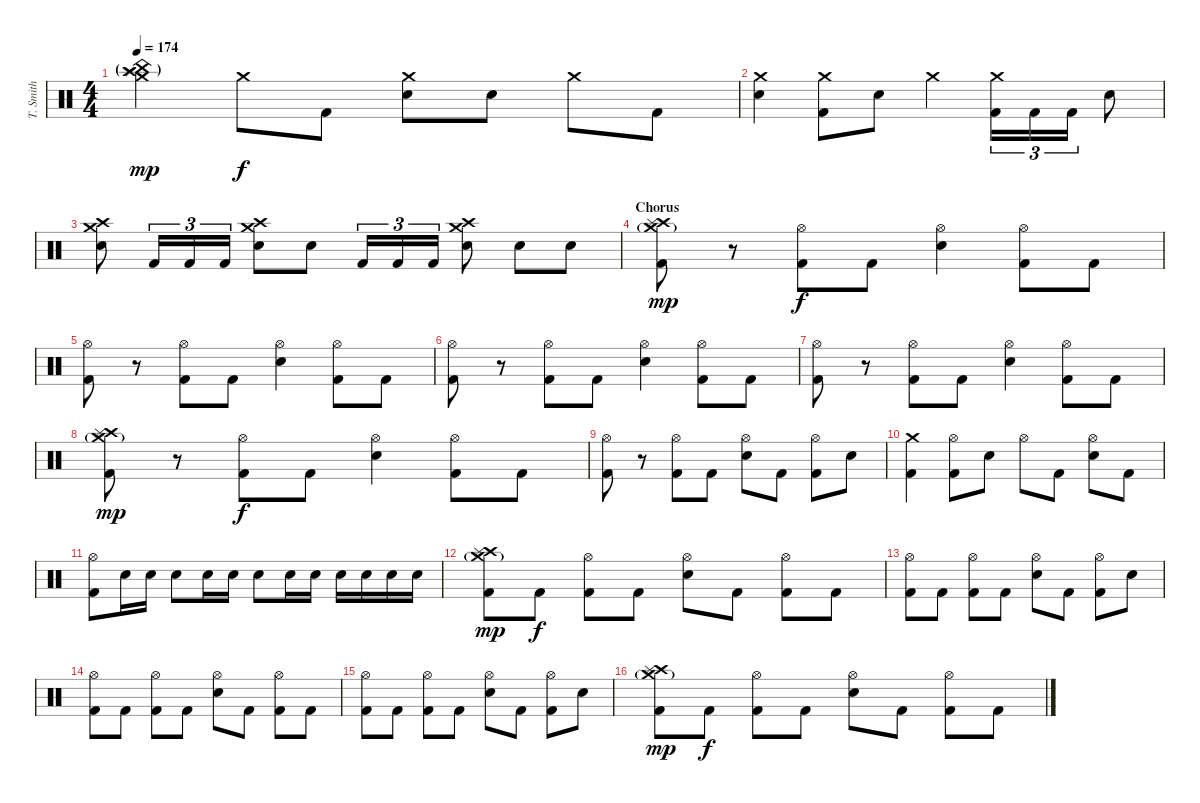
\track ("T. Smith" "T. Smith") {instrument percussion}
\staff {score}
\articulation defaults
\ts (4 4)
\tempo 174
\clef neutral
\ks c
("Crash medium (hit)" "Crash high (hit)"{g} "Splash (hit)" "China (hit)"{g}).4{dy mp} "Crash medium (hit)".8{dy f} "Kick (hit) 2".8 ("Crash medium (hit)" "Electric Snare (hit)").8 "Electric Snare (hit)".8 "Crash medium (hit)".8 "Kick (hit) 2".8 |
("Crash medium (hit)" "Electric Snare (hit)").4 ("Crash medium (hit)" "Kick (hit) 2").8 "Electric Snare (hit)".8 "Crash medium (hit)".4 ("Crash medium (hit)" "Kick (hit) 2").16{tu (3 2)} "Kick (hit) 2".16{tu (3 2)} "Kick (hit) 2".16{tu (3 2)} "Electric Snare (hit)".8 |
("Crash medium (hit)" "Crash high (hit)" "Electric Snare (hit)").8 "Kick (hit) 2".16{tu (3 2)} "Kick (hit) 2".16{tu (3 2)} "Kick (hit) 2".16{tu (3 2)} ("Crash medium (hit)" "Crash high (hit)" "Electric Snare (hit)").8 "Electric Snare (hit)".8 "Kick (hit) 2".16{tu (3 2)} "Kick (hit) 2".16{tu (3 2)} "Kick (hit) 2".16{tu (3 2)} ("Crash medium (hit)" "Crash high (hit)" "Electric Snare (hit)").8 "Electric Snare (hit)".8 "Electric Snare (hit)".8 |
\section ("" "Chorus")
("Crash medium (hit)"{g} "Crash high (hit)" "Splash (hit)" "Kick (hit) 2").8{dy mp} r.8 ("Hi-Hat (open)" "Kick (hit) 2").8{dy f} "Kick (hit) 2".8 ("Hi-Hat (open)" "Electric Snare (hit)").4 ("Hi-Hat (open)" "Kick (hit) 2").8 "Kick (hit) 2".8 |
("Hi-Hat (open)" "Kick (hit) 2").8 r.8 ("Hi-Hat (open)" "Kick (hit) 2").8 "Kick (hit) 2".8 ("Hi-Hat (open)" "Electric Snare (hit)").4 ("Hi-Hat (open)" "Kick (hit) 2").8 "Kick (hit) 2".8 |
("Hi-Hat (open)" "Kick (hit) 2").8 r.8 ("Hi-Hat (open)" "Kick (hit) 2").8 "Kick (hit) 2".8 ("Hi-Hat (open)" "Electric Snare (hit)").4 ("Hi-Hat (open)" "Kick (hit) 2").8 "Kick (hit) 2".8 |
("Hi-Hat (open)" "Kick (hit) 2").8 r.8 ("Hi-Hat (open)" "Kick (hit) 2").8 "Kick (hit) 2".8 ("Hi-Hat (open)" "Electric Snare (hit)").4 ("Hi-Hat (open)" "Kick (hit) 2").8 "Kick (hit) 2".8 |
("Crash medium (hit)"{g} "Crash high (hit)" "Splash (hit)" "Kick (hit) 2").8{dy mp} r.8 ("Hi-Hat (open)" "Kick (hit) 2").8{dy f} "Kick (hit) 2".8 ("Hi-Hat (open)" "Electric Snare (hit)").4 ("Hi-Hat (open)" "Kick (hit) 2").8 "Kick (hit) 2".8 |
("Hi-Hat (open)" "Kick (hit) 2").8 r.8 ("Hi-Hat (open)" "Kick (hit) 2").8 "Kick (hit) 2".8 ("Hi-Hat (open)" "Electric Snare (hit)").8 "Kick (hit) 2".8 ("Hi-Hat (open)" "Kick (hit) 2").8 "Electric Snare (hit)".8 |
("Crash medium (hit)" "Kick (hit) 2").4 ("Hi-Hat (open)" "Kick (hit) 2").8 "Electric Snare (hit)".8 "Hi-Hat (open)".8 "Kick (hit) 2".8 ("Hi-Hat (open)" "Electric Snare (hit)").8 "Kick (hit) 2".8 |
("Hi-Hat (open)" "Kick (hit) 2").8 "Electric Snare (hit)".16 "Electric Snare (hit)".16 "Electric Snare (hit)".8 "Electric Snare (hit)".16 "Electric Snare (hit)".16 "Electric Snare (hit)".8 "Electric Snare (hit)".16 "Electric Snare (hit)".16 "Electric Snare (hit)".16 "Electric Snare (hit)".16 "Electric Snare (hit)".16 "Electric Snare (hit)".16 |
("Crash medium (hit)"{g} "Crash high (hit)" "Splash (hit)" "Kick (hit) 2").8{dy mp} "Kick (hit) 2".8{dy f} ("Hi-Hat (open)" "Kick (hit) 2").8 "Kick (hit) 2".8 ("Hi-Hat (open)" "Electric Snare (hit)").8 "Kick (hit) 2".8 ("Hi-Hat (open)" "Kick (hit) 2").8 "Kick (hit) 2".8 |
("Hi-Hat (open)" "Kick (hit) 2").8 "Kick (hit) 2".8 ("Hi-Hat (open)" "Kick (hit) 2").8 "Kick (hit) 2".8 ("Hi-Hat (open)" "Electric Snare (hit)").8 "Kick (hit) 2".8 ("Hi-Hat (open)" "Kick (hit) 2").8 "Electric Snare (hit)".8 |
("Hi-Hat (open)" "Kick (hit) 2").8 "Kick (hit) 2".8 ("Hi-Hat (open)" "Kick (hit) 2").8 "Kick (hit) 2".8 ("Hi-Hat (open)" "Electric Snare (hit)").8 "Kick (hit) 2".8 ("Hi-Hat (open)" "Kick (hit) 2").8 "Kick (hit) 2".8 |
("Hi-Hat (open)" "Kick (hit) 2").8 "Kick (hit) 2".8 ("Hi-Hat (open)" "Kick (hit) 2").8 "Kick (hit) 2".8 ("Hi-Hat (open)" "Electric Snare (hit)").8 "Kick (hit) 2".8 ("Hi-Hat (open)" "Kick (hit) 2").8 "Electric Snare (hit)".8 |
("Crash medium (hit)"{g} "Crash high (hit)" "Splash (hit)" "Kick (hit) 2").8{dy mp} "Kick (hit) 2".8{dy f} ("Hi-Hat (open)" "Kick (hit) 2").8 "Kick (hit) 2".8 ("Hi-Hat (open)" "Electric Snare (hit)").8 "Kick (hit) 2".8 ("Hi-Hat (open)" "Kick (hit) 2").8 "Kick (hit) 2".8
